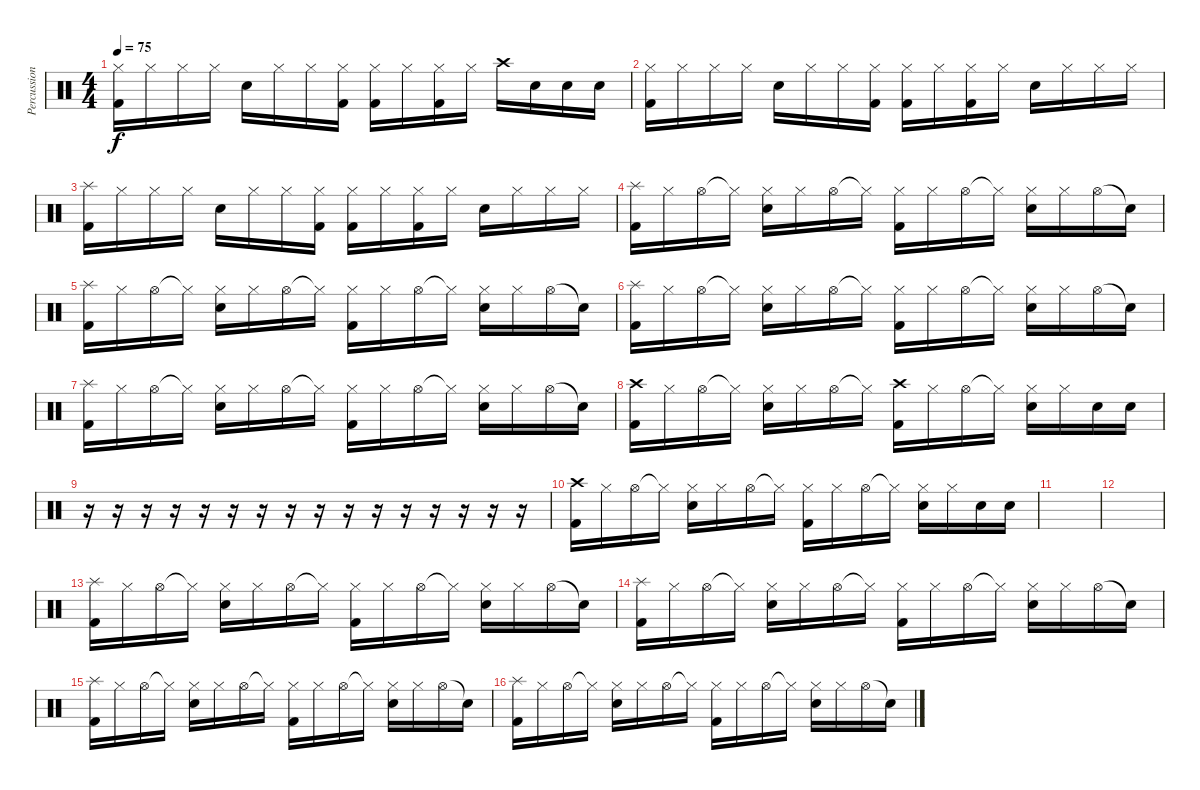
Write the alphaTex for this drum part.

\track ("Percussion" "Percussion") {instrument percussion}
\staff {score}
\articulation defaults
\ts (4 4)
\tempo 75
\clef neutral
\ks c
("Kick (hit) 2" "Hi-Hat (closed)").16{dy f} "Hi-Hat (closed)".16 "Hi-Hat (closed)".16 "Hi-Hat (closed)".16 "Snare (hit) 2".16 "Hi-Hat (closed)".16 "Hi-Hat (closed)".16 ("Kick (hit) 2" "Hi-Hat (closed)").16 ("Kick (hit) 2" "Hi-Hat (closed)").16 "Hi-Hat (closed)".16 ("Kick (hit) 2" "Hi-Hat (closed)").16 "Hi-Hat (closed)".16 "Crash high (hit)".16 "Snare (hit) 2".16 "Snare (hit) 2".16 "Snare (hit) 2".16 |
("Kick (hit) 2" "Hi-Hat (closed)").16 "Hi-Hat (closed)".16 "Hi-Hat (closed)".16 "Hi-Hat (closed)".16 "Snare (hit) 2".16 "Hi-Hat (closed)".16 "Hi-Hat (closed)".16 ("Kick (hit) 2" "Hi-Hat (closed)").16 ("Kick (hit) 2" "Hi-Hat (closed)").16 "Hi-Hat (closed)".16 ("Kick (hit) 2" "Hi-Hat (closed)").16 "Hi-Hat (closed)".16 "Snare (hit) 2".16 "Hi-Hat (closed)".16 "Hi-Hat (closed)".16 "Hi-Hat (closed)".16 |
("Splash (hit)" "Kick (hit) 2").16 "Hi-Hat (closed)".16 "Hi-Hat (closed)".16 "Hi-Hat (closed)".16 "Snare (hit) 2".16 "Hi-Hat (closed)".16 "Hi-Hat (closed)".16 ("Kick (hit) 2" "Hi-Hat (closed)").16 ("Kick (hit) 2" "Hi-Hat (closed)").16 "Hi-Hat (closed)".16 ("Kick (hit) 2" "Hi-Hat (closed)").16 "Hi-Hat (closed)".16 "Snare (hit) 2".16 "Hi-Hat (closed)".16 "Hi-Hat (closed)".16 "Hi-Hat (closed)".16 |
("Splash (hit)" "Kick (hit) 2").16 "Hi-Hat (closed)".16 "Hi-Hat (open)".16 "Hi-Hat (closed)"{t}.16 ("Snare (hit) 2" "Hi-Hat (closed)").16 "Hi-Hat (closed)".16 "Hi-Hat (open)".16 "Hi-Hat (closed)"{t}.16 ("Kick (hit) 2" "Hi-Hat (closed)").16 "Hi-Hat (closed)".16 "Hi-Hat (open)".16 "Hi-Hat (closed)"{t}.16 ("Snare (hit) 2" "Hi-Hat (closed)").16 "Hi-Hat (closed)".16 "Hi-Hat (open)".16 "Snare (hit)"{t}.16 |
("Splash (hit)" "Kick (hit) 2").16 "Hi-Hat (closed)".16 "Hi-Hat (open)".16 "Hi-Hat (closed)"{t}.16 ("Snare (hit) 2" "Hi-Hat (closed)").16 "Hi-Hat (closed)".16 "Hi-Hat (open)".16 "Hi-Hat (closed)"{t}.16 ("Kick (hit) 2" "Hi-Hat (closed)").16 "Hi-Hat (closed)".16 "Hi-Hat (open)".16 "Hi-Hat (closed)"{t}.16 ("Snare (hit) 2" "Hi-Hat (closed)").16 "Hi-Hat (closed)".16 "Hi-Hat (open)".16 "Snare (hit)"{t}.16 |
("Splash (hit)" "Kick (hit) 2").16 "Hi-Hat (closed)".16 "Hi-Hat (open)".16 "Hi-Hat (closed)"{t}.16 ("Snare (hit) 2" "Hi-Hat (closed)").16 "Hi-Hat (closed)".16 "Hi-Hat (open)".16 "Hi-Hat (closed)"{t}.16 ("Kick (hit) 2" "Hi-Hat (closed)").16 "Hi-Hat (closed)".16 "Hi-Hat (open)".16 "Hi-Hat (closed)"{t}.16 ("Snare (hit) 2" "Hi-Hat (closed)").16 "Hi-Hat (closed)".16 "Hi-Hat (open)".16 "Snare (hit)"{t}.16 |
("Splash (hit)" "Kick (hit) 2").16 "Hi-Hat (closed)".16 "Hi-Hat (open)".16 "Hi-Hat (closed)"{t}.16 ("Snare (hit) 2" "Hi-Hat (closed)").16 "Hi-Hat (closed)".16 "Hi-Hat (open)".16 "Hi-Hat (closed)"{t}.16 ("Kick (hit) 2" "Hi-Hat (closed)").16 "Hi-Hat (closed)".16 "Hi-Hat (open)".16 "Hi-Hat (closed)"{t}.16 ("Snare (hit) 2" "Hi-Hat (closed)").16 "Hi-Hat (closed)".16 "Hi-Hat (open)".16 "Snare (hit)"{t}.16 |
("Crash high (hit)" "Kick (hit) 2").16 "Hi-Hat (closed)".16 "Hi-Hat (open)".16 "Hi-Hat (closed)"{t}.16 ("Snare (hit) 2" "Hi-Hat (closed)").16 "Hi-Hat (closed)".16 "Hi-Hat (open)".16 "Hi-Hat (closed)"{t}.16 ("Crash high (hit)" "Kick (hit) 2").16 "Hi-Hat (closed)".16 "Hi-Hat (open)".16 "Hi-Hat (closed)"{t}.16 ("Snare (hit) 2" "Hi-Hat (closed)").16 "Hi-Hat (closed)".16 "Snare (hit) 2".16 "Snare (hit) 2".16 |
r.16 r.16 r.16 r.16 r.16 r.16 r.16 r.16 r.16 r.16 r.16 r.16 r.16 r.16 r.16 r.16 |
("Crash high (hit)" "Kick (hit) 2").16 "Hi-Hat (closed)".16 "Hi-Hat (open)".16 "Hi-Hat (closed)"{t}.16 ("Snare (hit) 2" "Hi-Hat (closed)").16 "Hi-Hat (closed)".16 "Hi-Hat (open)".16 "Hi-Hat (closed)"{t}.16 ("Hi-Hat (closed)" "Kick (hit) 2").16 "Hi-Hat (closed)".16 "Hi-Hat (open)".16 "Hi-Hat (closed)"{t}.16 ("Snare (hit) 2" "Hi-Hat (closed)").16 "Hi-Hat (closed)".16 "Snare (hit) 2".16 "Snare (hit) 2".16 |
|
|
("Splash (hit)" "Kick (hit) 2").16 "Hi-Hat (closed)".16 "Hi-Hat (open)".16 "Hi-Hat (closed)"{t}.16 ("Snare (hit) 2" "Hi-Hat (closed)").16 "Hi-Hat (closed)".16 "Hi-Hat (open)".16 "Hi-Hat (closed)"{t}.16 ("Kick (hit) 2" "Hi-Hat (closed)").16 "Hi-Hat (closed)".16 "Hi-Hat (open)".16 "Hi-Hat (closed)"{t}.16 ("Snare (hit) 2" "Hi-Hat (closed)").16 "Hi-Hat (closed)".16 "Hi-Hat (open)".16 "Snare (hit)"{t}.16 |
("Splash (hit)" "Kick (hit) 2").16 "Hi-Hat (closed)".16 "Hi-Hat (open)".16 "Hi-Hat (closed)"{t}.16 ("Snare (hit) 2" "Hi-Hat (closed)").16 "Hi-Hat (closed)".16 "Hi-Hat (open)".16 "Hi-Hat (closed)"{t}.16 ("Kick (hit) 2" "Hi-Hat (closed)").16 "Hi-Hat (closed)".16 "Hi-Hat (open)".16 "Hi-Hat (closed)"{t}.16 ("Snare (hit) 2" "Hi-Hat (closed)").16 "Hi-Hat (closed)".16 "Hi-Hat (open)".16 "Snare (hit)"{t}.16 |
("Splash (hit)" "Kick (hit) 2").16 "Hi-Hat (closed)".16 "Hi-Hat (open)".16 "Hi-Hat (closed)"{t}.16 ("Snare (hit) 2" "Hi-Hat (closed)").16 "Hi-Hat (closed)".16 "Hi-Hat (open)".16 "Hi-Hat (closed)"{t}.16 ("Kick (hit) 2" "Hi-Hat (closed)").16 "Hi-Hat (closed)".16 "Hi-Hat (open)".16 "Hi-Hat (closed)"{t}.16 ("Snare (hit) 2" "Hi-Hat (closed)").16 "Hi-Hat (closed)".16 "Hi-Hat (open)".16 "Snare (hit)"{t}.16 |
("Splash (hit)" "Kick (hit) 2").16 "Hi-Hat (closed)".16 "Hi-Hat (open)".16 "Hi-Hat (closed)"{t}.16 ("Snare (hit) 2" "Hi-Hat (closed)").16 "Hi-Hat (closed)".16 "Hi-Hat (open)".16 "Hi-Hat (closed)"{t}.16 ("Kick (hit) 2" "Hi-Hat (closed)").16 "Hi-Hat (closed)".16 "Hi-Hat (open)".16 "Hi-Hat (closed)"{t}.16 ("Snare (hit) 2" "Hi-Hat (closed)").16 "Hi-Hat (closed)".16 "Hi-Hat (open)".16 "Snare (hit)"{t}.16
